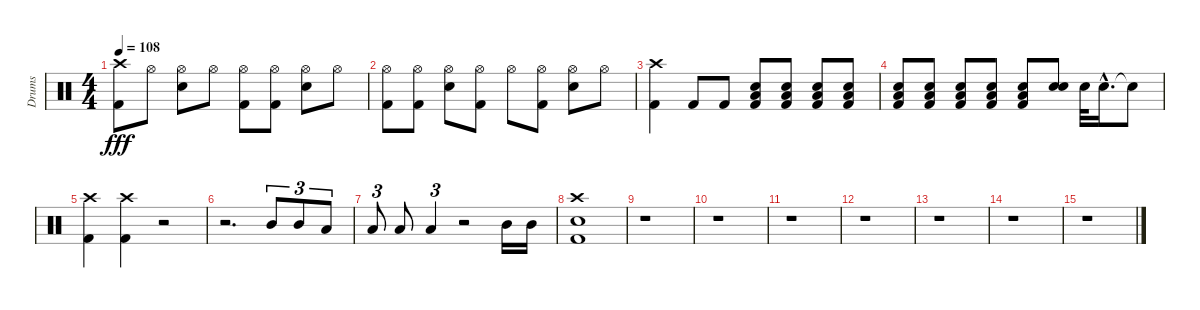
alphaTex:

\track ("Drums" "Drums") {instrument percussion}
\staff {score}
\articulation defaults
\ts (4 4)
\tempo 108
\clef neutral
\ks c
("Crash high (hit)" "Kick (hit) 2").8{dy fff} "Hi-Hat (open)".8 ("Hi-Hat (open)" "Snare (hit) 2").8 "Hi-Hat (open)".8 ("Hi-Hat (open)" "Kick (hit) 2").8 ("Hi-Hat (open)" "Kick (hit) 2").8 ("Hi-Hat (open)" "Snare (hit) 2").8 "Hi-Hat (open)".8 |
("Hi-Hat (open)" "Kick (hit) 2").8 ("Hi-Hat (open)" "Kick (hit) 2").8 ("Hi-Hat (open)" "Snare (hit) 2").8 ("Hi-Hat (open)" "Kick (hit) 2").8 "Hi-Hat (open)".8 ("Hi-Hat (open)" "Kick (hit) 2").8 ("Hi-Hat (open)" "Snare (hit) 2").8 "Hi-Hat (open)".8 |
("Crash high (hit)" "Kick (hit) 2").4 "Kick (hit) 2".8 "Kick (hit) 2".8 ("Low Floor Tom (hit)" "Snare (hit) 2" "Kick (hit) 2").8 ("Low Floor Tom (hit)" "Snare (hit) 2" "Kick (hit) 2").8 ("Low Floor Tom (hit)" "Snare (hit) 2" "Kick (hit) 2").8 ("Low Floor Tom (hit)" "Snare (hit) 2" "Kick (hit) 2").8 |
("Low Floor Tom (hit)" "Snare (hit) 2" "Kick (hit) 2").8 ("Low Floor Tom (hit)" "Snare (hit) 2" "Kick (hit) 2").8 ("Low Floor Tom (hit)" "Snare (hit) 2" "Kick (hit) 2").8 ("Low Floor Tom (hit)" "Snare (hit) 2" "Kick (hit) 2").8 ("Low Floor Tom (hit)" "Snare (hit) 2" "Kick (hit) 2").8 ("Snare (hit) 2" "Snare (hit) 2").8 "Snare (hit) 2".32 "Snare (hit) 2"{hac}.16{d} "Snare (hit)"{t}.8 |
("Crash high (hit)" "Kick (hit) 2").4 ("Crash high (hit)" "Kick (hit) 2").4 r.2 |
r.2{d} "Mid Tom (hit)".8{tu (3 2)} "Mid Tom (hit)".8{tu (3 2)} "Low Tom (hit)".8{tu (3 2)} |
"Low Tom (hit)".8{tu (3 2)} "Low Floor Tom (hit)".8 "Low Floor Tom (hit)".4{tu (3 2)} r.2 "Mid Tom (hit)".16 "Mid Tom (hit)".16 |
("Crash high (hit)" "Snare (hit) 2" "Kick (hit) 2").1 |
r.1 |
r.1 |
r.1 |
r.1 |
r.1 |
r.1 |
r.1
